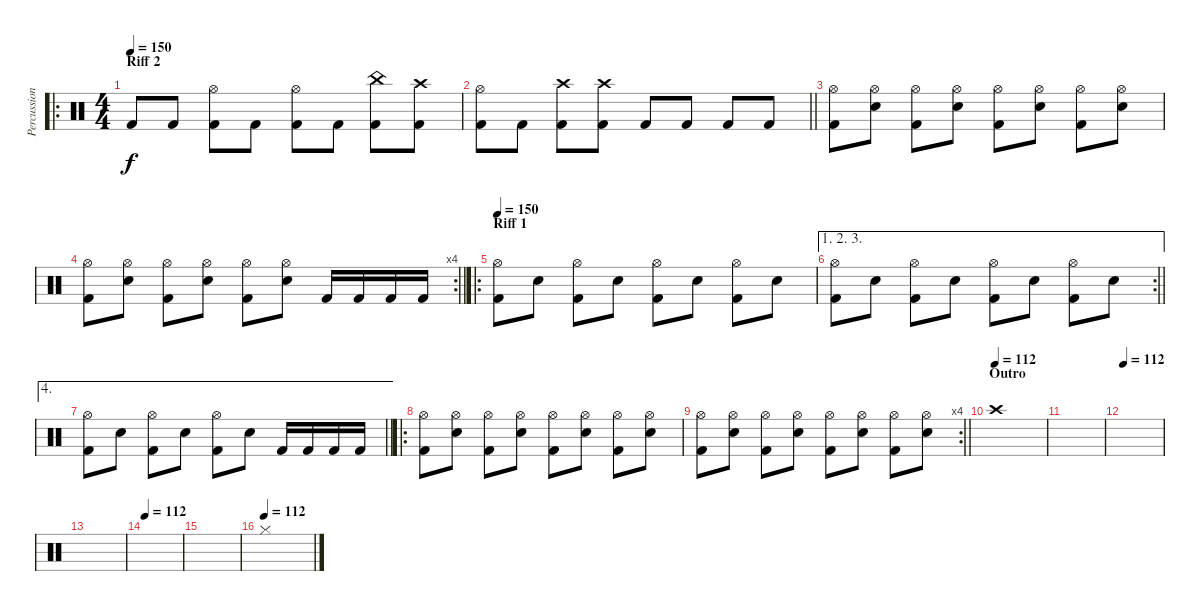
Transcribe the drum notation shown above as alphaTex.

\track ("Percussion" "Percussion") {instrument percussion}
\staff {score}
\articulation defaults
\ro
\ts (4 4)
\section ("" "Riff 2")
\tempo 150
\clef neutral
\ks c "Kick (hit) 2".8{dy f} "Kick (hit) 2".8
("Hi-Hat (open)" "Kick (hit) 2").8 "Kick (hit) 2".8 ("Hi-Hat (open)" "Kick (hit) 2").8 "Kick (hit) 2".8 ("China (hit)" "Kick (hit) 2").8 ("Crash high (hit)" "Kick (hit) 2").8 |
\barLineRight lightlight
("Hi-Hat (open)" "Kick (hit) 2").8 "Kick (hit) 2".8 ("Crash high (hit)" "Kick (hit) 2").8 ("Crash high (hit)" "Kick (hit) 2").8 "Kick (hit) 2".8 "Kick (hit) 2".8 "Kick (hit) 2".8 "Kick (hit) 2".8 |
("Hi-Hat (open)" "Kick (hit) 2").8 ("Hi-Hat (open)" "Snare (hit) 2").8 ("Hi-Hat (open)" "Kick (hit) 2").8 ("Hi-Hat (open)" "Snare (hit) 2").8 ("Hi-Hat (open)" "Kick (hit) 2").8 ("Hi-Hat (open)" "Snare (hit) 2").8 ("Hi-Hat (open)" "Kick (hit) 2").8 ("Hi-Hat (open)" "Snare (hit) 2").8 |
\rc 4
\barLineRight lightlight
("Hi-Hat (open)" "Kick (hit) 2").8 ("Hi-Hat (open)" "Snare (hit) 2").8 ("Hi-Hat (open)" "Kick (hit) 2").8 ("Hi-Hat (open)" "Snare (hit) 2").8 ("Hi-Hat (open)" "Kick (hit) 2").8 ("Hi-Hat (open)" "Snare (hit) 2").8 "Kick (hit) 2".16 "Kick (hit) 2".16 "Kick (hit) 2".16 "Kick (hit) 2".16 |
\ro
\section ("" "Riff 1")
\tempo 150
("Hi-Hat (open)" "Kick (hit) 2").8 "Snare (hit) 2".8 ("Hi-Hat (open)" "Kick (hit) 2").8 "Snare (hit) 2".8 ("Hi-Hat (open)" "Kick (hit) 2").8 "Snare (hit) 2".8 ("Hi-Hat (open)" "Kick (hit) 2").8 "Snare (hit) 2".8 |
\ae (1 2 3)
\rc 2
\barLineRight lightlight
("Hi-Hat (open)" "Kick (hit) 2").8 "Snare (hit) 2".8 ("Hi-Hat (open)" "Kick (hit) 2").8 "Snare (hit) 2".8 ("Hi-Hat (open)" "Kick (hit) 2").8 "Snare (hit) 2".8 ("Hi-Hat (open)" "Kick (hit) 2").8 "Snare (hit) 2".8 |
\ae 4
\barLineRight lightlight
("Hi-Hat (open)" "Kick (hit) 2").8 "Snare (hit) 2".8 ("Hi-Hat (open)" "Kick (hit) 2").8 "Snare (hit) 2".8 ("Hi-Hat (open)" "Kick (hit) 2").8 "Snare (hit) 2".8 "Kick (hit) 2".16 "Kick (hit) 2".16 "Kick (hit) 2".16 "Kick (hit) 2".16 |
\ro
("Hi-Hat (open)" "Kick (hit) 2").8 ("Hi-Hat (open)" "Snare (hit) 2").8 ("Hi-Hat (open)" "Kick (hit) 2").8 ("Hi-Hat (open)" "Snare (hit) 2").8 ("Hi-Hat (open)" "Kick (hit) 2").8 ("Hi-Hat (open)" "Snare (hit) 2").8 ("Hi-Hat (open)" "Kick (hit) 2").8 ("Hi-Hat (open)" "Snare (hit) 2").8 |
\rc 4
\barLineRight lightlight
("Hi-Hat (open)" "Kick (hit) 2").8 ("Hi-Hat (open)" "Snare (hit) 2").8 ("Hi-Hat (open)" "Kick (hit) 2").8 ("Hi-Hat (open)" "Snare (hit) 2").8 ("Hi-Hat (open)" "Kick (hit) 2").8 ("Hi-Hat (open)" "Snare (hit) 2").8 ("Hi-Hat (open)" "Kick (hit) 2").8 ("Hi-Hat (open)" "Snare (hit) 2").8 |
\section ("" "Outro")
\tempo (112)
"Crash high (hit)".1 |
|
\tempo 112
|
|
\tempo 112
|
|
\tempo (112)
"Hi-Hat (closed)".1
